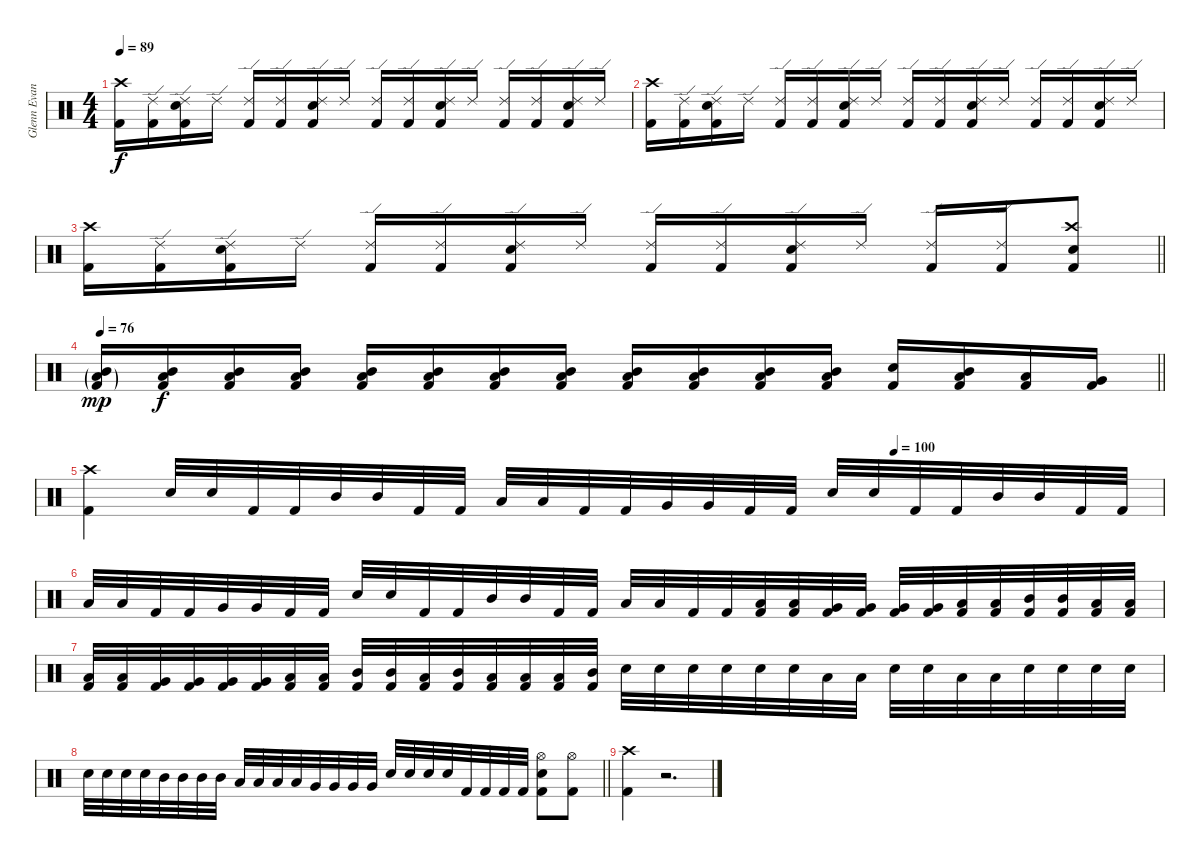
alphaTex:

\track ("Glenn Evans (Drums)" "Glenn Evan") {instrument percussion}
\staff {score}
\articulation defaults
\ts (4 4)
\tempo 89
\clef neutral
\ks c
("Kick (hit) 2" "Crash high (hit)").16{dy f} ("Kick (hit) 2" "Ride (edge) 2").16 ("Kick (hit) 2" "Electric Snare (hit)" "Ride (edge) 2").16 "Ride (edge) 2".16 ("Kick (hit) 2" "Ride (edge) 2").16 ("Kick (hit) 2" "Ride (edge) 2").16 ("Kick (hit) 2" "Electric Snare (hit)" "Ride (edge) 2").16 "Ride (edge) 2".16 ("Kick (hit) 2" "Ride (edge) 2").16 ("Kick (hit) 2" "Ride (edge) 2").16 ("Kick (hit) 2" "Electric Snare (hit)" "Ride (edge) 2").16 "Ride (edge) 2".16 ("Kick (hit) 2" "Ride (edge) 2").16 ("Kick (hit) 2" "Ride (edge) 2").16 ("Kick (hit) 2" "Electric Snare (hit)" "Ride (edge) 2").16 "Ride (edge) 2".16 |
("Kick (hit) 2" "Crash high (hit)").16 ("Kick (hit) 2" "Ride (edge) 2").16 ("Kick (hit) 2" "Electric Snare (hit)" "Ride (edge) 2").16 "Ride (edge) 2".16 ("Kick (hit) 2" "Ride (edge) 2").16 ("Kick (hit) 2" "Ride (edge) 2").16 ("Kick (hit) 2" "Electric Snare (hit)" "Ride (edge) 2").16 "Ride (edge) 2".16 ("Kick (hit) 2" "Ride (edge) 2").16 ("Kick (hit) 2" "Ride (edge) 2").16 ("Kick (hit) 2" "Electric Snare (hit)" "Ride (edge) 2").16 "Ride (edge) 2".16 ("Kick (hit) 2" "Ride (edge) 2").16 ("Kick (hit) 2" "Ride (edge) 2").16 ("Kick (hit) 2" "Electric Snare (hit)" "Ride (edge) 2").16 "Ride (edge) 2".16 |
\barLineRight lightlight
("Kick (hit) 2" "Crash high (hit)").16 ("Kick (hit) 2" "Ride (edge) 2").16 ("Kick (hit) 2" "Electric Snare (hit)" "Ride (edge) 2").16 "Ride (edge) 2".16 ("Kick (hit) 2" "Ride (edge) 2").16 ("Kick (hit) 2" "Ride (edge) 2").16 ("Kick (hit) 2" "Electric Snare (hit)" "Ride (edge) 2").16 "Ride (edge) 2".16 ("Kick (hit) 2" "Ride (edge) 2").16 ("Kick (hit) 2" "Ride (edge) 2").16 ("Kick (hit) 2" "Electric Snare (hit)" "Ride (edge) 2").16 "Ride (edge) 2".16 ("Kick (hit) 2" "Ride (edge) 2").16 ("Kick (hit) 2" "Ride (edge) 2").16 ("Kick (hit) 2" "Electric Snare (hit)" "Crash high (hit)").8 |
\tempo 76
\barLineRight lightlight
("Kick (hit) 2"{g} "Mid Tom (hit)"{g} "Low Floor Tom (hit)"{g}).16{dy mp} ("Kick (hit) 2" "Mid Tom (hit)" "Low Floor Tom (hit)").16{dy f} ("Kick (hit) 2" "Mid Tom (hit)" "Low Floor Tom (hit)").16 ("Kick (hit) 2" "Mid Tom (hit)" "Low Floor Tom (hit)").16 ("Kick (hit) 2" "Mid Tom (hit)" "Low Floor Tom (hit)").16 ("Kick (hit) 2" "Mid Tom (hit)" "Low Floor Tom (hit)").16 ("Kick (hit) 2" "Mid Tom (hit)" "Low Floor Tom (hit)").16 ("Kick (hit) 2" "Mid Tom (hit)" "Low Floor Tom (hit)").16 ("Kick (hit) 2" "Mid Tom (hit)" "Low Floor Tom (hit)").16 ("Kick (hit) 2" "Mid Tom (hit)" "Low Floor Tom (hit)").16 ("Kick (hit) 2" "Mid Tom (hit)" "Low Floor Tom (hit)").16 ("Kick (hit) 2" "Mid Tom (hit)" "Low Floor Tom (hit)").16 ("Kick (hit) 2" "Electric Snare (hit)").16 ("Kick (hit) 2" "Mid Tom (hit)" "Low Floor Tom (hit)").16 ("Kick (hit) 2" "Low Tom (hit)").16 ("Kick (hit) 2" "Very Low Tom (hit)").16 |
\tempo (100 0.75)
("Kick (hit) 2" "Crash high (hit)").4 "Electric Snare (hit)".32 "Electric Snare (hit)".32 "Kick (hit) 2".32 "Kick (hit) 2".32 "Mid Tom (hit)".32 "Mid Tom (hit)".32 "Kick (hit) 2".32 "Kick (hit) 2".32 "Low Tom (hit)".32 "Low Tom (hit)".32 "Kick (hit) 2".32 "Kick (hit) 2".32 "Very Low Tom (hit)".32 "Very Low Tom (hit)".32 "Kick (hit) 2".32 "Kick (hit) 2".32 "Electric Snare (hit)".32 "Electric Snare (hit)".32 "Kick (hit) 2".32 "Kick (hit) 2".32 "Mid Tom (hit)".32 "Mid Tom (hit)".32 "Kick (hit) 2".32 "Kick (hit) 2".32 |
"Low Tom (hit)".32 "Low Tom (hit)".32 "Kick (hit) 2".32 "Kick (hit) 2".32 "Very Low Tom (hit)".32 "Very Low Tom (hit)".32 "Kick (hit) 2".32 "Kick (hit) 2".32 "Electric Snare (hit)".32 "Electric Snare (hit)".32 "Kick (hit) 2".32 "Kick (hit) 2".32 "Mid Tom (hit)".32 "Mid Tom (hit)".32 "Kick (hit) 2".32 "Kick (hit) 2".32 "Low Tom (hit)".32 "Low Tom (hit)".32 "Kick (hit) 2".32 "Kick (hit) 2".32 ("Kick (hit) 2" "Low Tom (hit)").32 ("Kick (hit) 2" "Low Tom (hit)").32 ("Kick (hit) 2" "Very Low Tom (hit)").32 ("Kick (hit) 2" "Very Low Tom (hit)").32 ("Kick (hit) 2" "Very Low Tom (hit)").32 ("Kick (hit) 2" "Very Low Tom (hit)").32 ("Kick (hit) 2" "Low Tom (hit)").32 ("Kick (hit) 2" "Low Tom (hit)").32 ("Kick (hit) 2" "Mid Tom (hit)").32 ("Kick (hit) 2" "Mid Tom (hit)").32 ("Kick (hit) 2" "Low Tom (hit)").32 ("Kick (hit) 2" "Low Tom (hit)").32 |
("Kick (hit) 2" "Low Tom (hit)").32 ("Kick (hit) 2" "Low Tom (hit)").32 ("Kick (hit) 2" "Very Low Tom (hit)").32 ("Kick (hit) 2" "Very Low Tom (hit)").32 ("Kick (hit) 2" "Very Low Tom (hit)").32 ("Kick (hit) 2" "Very Low Tom (hit)").32 ("Kick (hit) 2" "Low Tom (hit)").32 ("Kick (hit) 2" "Low Tom (hit)").32 ("Kick (hit) 2" "Mid Tom (hit)").32 ("Kick (hit) 2" "Mid Tom (hit)").32 ("Kick (hit) 2" "Low Tom (hit)").32 ("Kick (hit) 2" "Mid Tom (hit)").32 ("Kick (hit) 2" "Low Tom (hit)").32 ("Kick (hit) 2" "Low Tom (hit)").32 ("Kick (hit) 2" "Low Tom (hit)").32 ("Kick (hit) 2" "Mid Tom (hit)").32 "Electric Snare (hit)".32 "Electric Snare (hit)".32 "Electric Snare (hit)".32 "Electric Snare (hit)".32 "Electric Snare (hit)".32 "Electric Snare (hit)".32 "Low Tom (hit)".32 "Low Tom (hit)".32 "Electric Snare (hit)".32 "Electric Snare (hit)".32 "Low Tom (hit)".32 "Low Tom (hit)".32 "Electric Snare (hit)".32 "Electric Snare (hit)".32 "Electric Snare (hit)".32 "Electric Snare (hit)".32 |
\barLineRight lightlight "Electric Snare (hit)".32 "Electric Snare (hit)".32 "Electric Snare (hit)".32 "Electric Snare (hit)".32 "Mid Tom (hit)".32 "Mid Tom (hit)".32 "Mid Tom (hit)".32 "Mid Tom (hit)".32 "Low Tom (hit)".32 "Low Tom (hit)".32 "Low Tom (hit)".32 "Low Tom (hit)".32 "Very Low Tom (hit)".32 "Very Low Tom (hit)".32 "Very Low Tom (hit)".32 "Very Low Tom (hit)".32 "Electric Snare (hit)".32 "Electric Snare (hit)".32 "Electric Snare (hit)".32 "Electric Snare (hit)".32 "Kick (hit) 2".32 "Kick (hit) 2".32 "Kick (hit) 2".32 "Kick (hit) 2".32
("Kick (hit) 2" "Electric Snare (hit)" "Hi-Hat (open)").8 ("Kick (hit) 2" "Hi-Hat (open)").8 |
("Kick (hit) 2" "Crash high (hit)").4 r.2{d}
